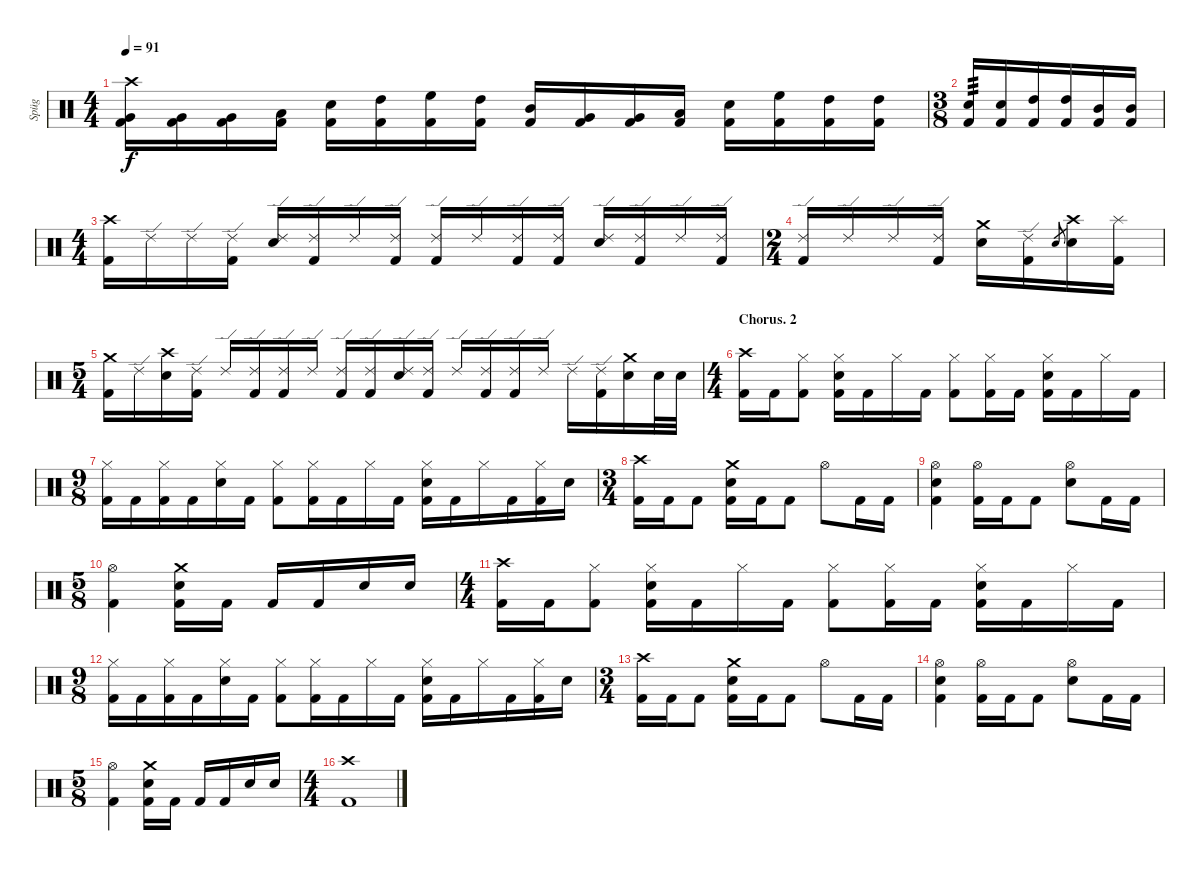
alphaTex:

\track ("Spüg" "Spüg") {instrument percussion}
\staff {score}
\articulation defaults
\ts (4 4)
\tempo 91
\clef neutral
\ks c
("Crash high (hit)" "Very Low Tom (hit)" "Kick (hit) 2").16{dy f} ("Very Low Tom (hit)" "Kick (hit) 2").16 ("Very Low Tom (hit)" "Kick (hit) 2").16 ("Low Tom (hit)" "Kick (hit) 2").16 ("Electric Snare (hit)" "Kick (hit) 2").16 ("High Tom (hit)" "Kick (hit) 2").16 ("High Floor Tom (hit)" "Kick (hit) 2").16 ("High Tom (hit)" "Kick (hit) 2").16 ("Mid Tom (hit)" "Kick (hit) 2").16 ("Very Low Tom (hit)" "Kick (hit) 2").16 ("Very Low Tom (hit)" "Kick (hit) 2").16 ("Low Tom (hit)" "Kick (hit) 2").16 ("Electric Snare (hit)" "Kick (hit) 2").16 ("High Floor Tom (hit)" "Kick (hit) 2").16 ("High Tom (hit)" "Kick (hit) 2").16 ("High Tom (hit)" "Kick (hit) 2").16 |
\ts (3 8)
("Electric Snare (hit)" "Kick (hit) 2").16{tp 3} ("Electric Snare (hit)" "Kick (hit) 2").16 ("High Tom (hit)" "Kick (hit) 2").16 ("High Tom (hit)" "Kick (hit) 2").16 ("Mid Tom (hit)" "Kick (hit) 2").16 ("Mid Tom (hit)" "Kick (hit) 2").16 |
\ts (4 4)
("Crash high (hit)" "Kick (hit) 2").16 "Ride (edge) 2".16 "Ride (edge) 2".16 ("Ride (edge) 2" "Kick (hit) 2").16 ("Ride (edge) 2" "Electric Snare (hit)").16 ("Ride (edge) 2" "Kick (hit) 2").16 "Ride (edge) 2".16 ("Ride (edge) 2" "Kick (hit) 2").16 ("Ride (edge) 2" "Kick (hit) 2").16 "Ride (edge) 2".16 ("Ride (edge) 2" "Kick (hit) 2").16 ("Ride (edge) 2" "Kick (hit) 2").16 ("Ride (edge) 2" "Electric Snare (hit)").16 ("Ride (edge) 2" "Kick (hit) 2").16 "Ride (edge) 2".16 ("Ride (edge) 2" "Kick (hit) 2").16 |
\ts (2 4)
("Ride (edge) 2" "Kick (hit) 2").16 "Ride (edge) 2".16 "Ride (edge) 2".16 ("Ride (edge) 2" "Kick (hit) 2").16 ("Crash medium (hit)" "Electric Snare (hit)").16 ("Ride (edge) 2" "Kick (hit) 2").16 "Electric Snare (hit)".8{gr} ("Crash high (hit)" "Electric Snare (hit)").16 ("Splash (hit)" "Kick (hit) 2").16 |
\ts (5 4)
("Crash medium (hit)" "Kick (hit) 2").16 "Ride (edge) 2".16 ("Crash high (hit)" "Electric Snare (hit)").16 ("Ride (edge) 2" "Kick (hit) 2").16 "Ride (edge) 2".16 ("Ride (edge) 2" "Kick (hit) 2").16 ("Ride (edge) 2" "Kick (hit) 2").16 "Ride (edge) 2".16 ("Ride (edge) 2" "Kick (hit) 2").16 ("Ride (edge) 2" "Kick (hit) 2").16 ("Ride (edge) 2" "Electric Snare (hit)").16 ("Ride (edge) 2" "Kick (hit) 2").16 "Ride (edge) 2".16 ("Ride (edge) 2" "Kick (hit) 2").16 ("Ride (edge) 2" "Kick (hit) 2").16 "Ride (edge) 2".16 "Ride (edge) 2".16 ("Ride (edge) 2" "Kick (hit) 2").16 ("Crash medium (hit)" "Electric Snare (hit)").16 "Electric Snare (hit)".32 "Electric Snare (hit)".32 |
\ts (4 4)
\section ("" "Chorus. 2")
("Crash high (hit)" "Kick (hit) 2").16 "Kick (hit) 2".16 ("Hi-Hat (closed)" "Kick (hit) 2").8 ("Hi-Hat (closed)" "Electric Snare (hit)" "Kick (hit) 2").16 "Kick (hit) 2".16 "Hi-Hat (closed)".16 "Kick (hit) 2".16 ("Hi-Hat (closed)" "Kick (hit) 2").8 ("Hi-Hat (closed)" "Kick (hit) 2").16 "Kick (hit) 2".16 ("Hi-Hat (closed)" "Electric Snare (hit)" "Kick (hit) 2").16 "Kick (hit) 2".16 "Hi-Hat (closed)".16 "Kick (hit) 2".16 |
\ts (9 8)
("Hi-Hat (closed)" "Kick (hit) 2").16 "Kick (hit) 2".16 ("Hi-Hat (closed)" "Kick (hit) 2").16 "Kick (hit) 2".16 ("Hi-Hat (closed)" "Electric Snare (hit)").16 "Kick (hit) 2".16 ("Hi-Hat (closed)" "Kick (hit) 2").8 ("Hi-Hat (closed)" "Kick (hit) 2").16 "Kick (hit) 2".16 "Hi-Hat (closed)".16 "Kick (hit) 2".16 ("Hi-Hat (closed)" "Electric Snare (hit)" "Kick (hit) 2").16 "Kick (hit) 2".16 "Hi-Hat (closed)".16 "Kick (hit) 2".16 ("Hi-Hat (closed)" "Kick (hit) 2").16 "Electric Snare (hit)".16 |
\ts (3 4)
("Crash high (hit)" "Kick (hit) 2").16 "Kick (hit) 2".16 "Kick (hit) 2".8 ("Crash medium (hit)" "Electric Snare (hit)" "Kick (hit) 2").16 "Kick (hit) 2".16 "Kick (hit) 2".8 "Hi-Hat (open)".8 "Kick (hit) 2".16 "Kick (hit) 2".16 |
("Hi-Hat (open)" "Electric Snare (hit)" "Kick (hit) 2").4 ("Hi-Hat (open)" "Kick (hit) 2").16 "Kick (hit) 2".16 "Kick (hit) 2".8 ("Hi-Hat (open)" "Electric Snare (hit)").8 "Kick (hit) 2".16 "Kick (hit) 2".16 |
\ts (5 8)
("Hi-Hat (open)" "Kick (hit) 2").4 ("Crash medium (hit)" "Electric Snare (hit)" "Kick (hit) 2").16 "Kick (hit) 2".16 "Kick (hit) 2".16 "Kick (hit) 2".16 "Electric Snare (hit)".16 "Electric Snare (hit)".16 |
\ts (4 4)
("Crash high (hit)" "Kick (hit) 2").16 "Kick (hit) 2".16 ("Hi-Hat (closed)" "Kick (hit) 2").8 ("Hi-Hat (closed)" "Electric Snare (hit)" "Kick (hit) 2").16 "Kick (hit) 2".16 "Hi-Hat (closed)".16 "Kick (hit) 2".16 ("Hi-Hat (closed)" "Kick (hit) 2").8 ("Hi-Hat (closed)" "Kick (hit) 2").16 "Kick (hit) 2".16 ("Hi-Hat (closed)" "Electric Snare (hit)" "Kick (hit) 2").16 "Kick (hit) 2".16 "Hi-Hat (closed)".16 "Kick (hit) 2".16 |
\ts (9 8)
("Hi-Hat (closed)" "Kick (hit) 2").16 "Kick (hit) 2".16 ("Hi-Hat (closed)" "Kick (hit) 2").16 "Kick (hit) 2".16 ("Hi-Hat (closed)" "Electric Snare (hit)").16 "Kick (hit) 2".16 ("Hi-Hat (closed)" "Kick (hit) 2").8 ("Hi-Hat (closed)" "Kick (hit) 2").16 "Kick (hit) 2".16 "Hi-Hat (closed)".16 "Kick (hit) 2".16 ("Hi-Hat (closed)" "Electric Snare (hit)" "Kick (hit) 2").16 "Kick (hit) 2".16 "Hi-Hat (closed)".16 "Kick (hit) 2".16 ("Hi-Hat (closed)" "Kick (hit) 2").16 "Electric Snare (hit)".16 |
\ts (3 4)
("Crash high (hit)" "Kick (hit) 2").16 "Kick (hit) 2".16 "Kick (hit) 2".8 ("Crash medium (hit)" "Electric Snare (hit)" "Kick (hit) 2").16 "Kick (hit) 2".16 "Kick (hit) 2".8 "Hi-Hat (open)".8 "Kick (hit) 2".16 "Kick (hit) 2".16 |
("Hi-Hat (open)" "Electric Snare (hit)" "Kick (hit) 2").4 ("Hi-Hat (open)" "Kick (hit) 2").16 "Kick (hit) 2".16 "Kick (hit) 2".8 ("Hi-Hat (open)" "Electric Snare (hit)").8 "Kick (hit) 2".16 "Kick (hit) 2".16 |
\ts (5 8)
("Hi-Hat (open)" "Kick (hit) 2").4 ("Crash medium (hit)" "Electric Snare (hit)" "Kick (hit) 2").16 "Kick (hit) 2".16 "Kick (hit) 2".16 "Kick (hit) 2".16 "Electric Snare (hit)".16 "Electric Snare (hit)".16 |
\ts (4 4)
("Crash high (hit)" "Kick (hit) 2").1
